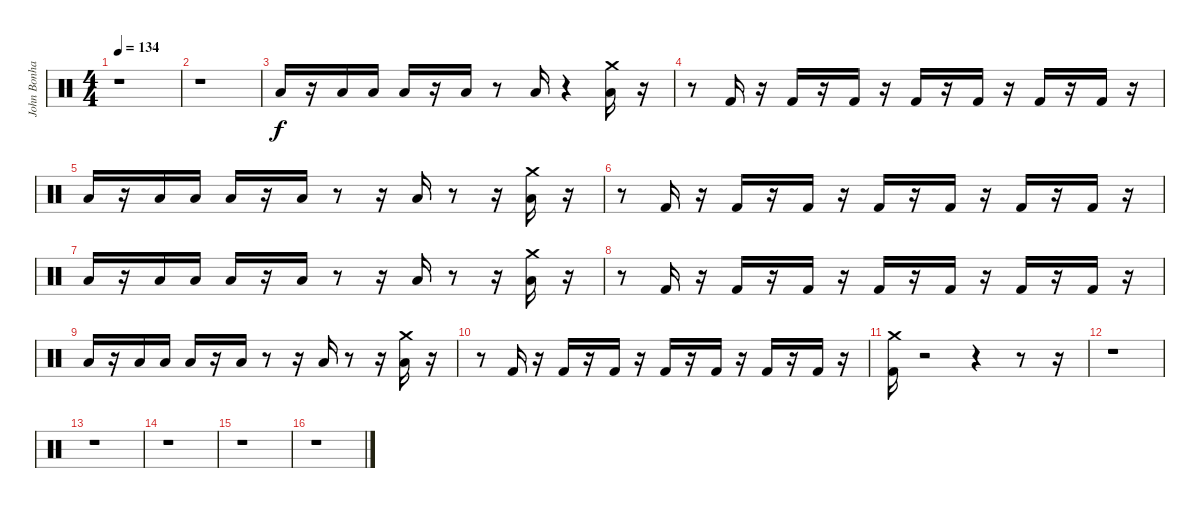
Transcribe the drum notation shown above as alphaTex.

\track ("John Bonham - Drums" "John Bonha") {instrument percussion}
\staff {score}
\articulation defaults
\ts (4 4)
\tempo 134
\clef neutral
\ks c
r.1{dy ppp} |
r.1 |
"Low Floor Tom (hit)".16{dy f} r.16 "Low Floor Tom (hit)".16 "Low Floor Tom (hit)".16 "Low Floor Tom (hit)".16 r.16 "Low Floor Tom (hit)".16 r.8 "Low Floor Tom (hit)".16 r.4 ("Low Floor Tom (hit)" "Crash medium (hit)").16 r.16 |
r.8 "Kick (hit) 2".16 r.16 "Kick (hit) 2".16 r.16 "Kick (hit) 2".16 r.16 "Kick (hit) 2".16 r.16 "Kick (hit) 2".16 r.16 "Kick (hit) 2".16 r.16 "Kick (hit) 2".16 r.16 |
"Low Floor Tom (hit)".16 r.16 "Low Floor Tom (hit)".16 "Low Floor Tom (hit)".16 "Low Floor Tom (hit)".16 r.16 "Low Floor Tom (hit)".16 r.8 r.16 "Low Floor Tom (hit)".16 r.8 r.16 ("Low Floor Tom (hit)" "Crash medium (hit)").16 r.16 |
r.8 "Kick (hit) 2".16 r.16 "Kick (hit) 2".16 r.16 "Kick (hit) 2".16 r.16 "Kick (hit) 2".16 r.16 "Kick (hit) 2".16 r.16 "Kick (hit) 2".16 r.16 "Kick (hit) 2".16 r.16 |
"Low Floor Tom (hit)".16 r.16 "Low Floor Tom (hit)".16 "Low Floor Tom (hit)".16 "Low Floor Tom (hit)".16 r.16 "Low Floor Tom (hit)".16 r.8 r.16 "Low Floor Tom (hit)".16 r.8 r.16 ("Low Floor Tom (hit)" "Crash medium (hit)").16 r.16 |
r.8 "Kick (hit) 2".16 r.16 "Kick (hit) 2".16 r.16 "Kick (hit) 2".16 r.16 "Kick (hit) 2".16 r.16 "Kick (hit) 2".16 r.16 "Kick (hit) 2".16 r.16 "Kick (hit) 2".16 r.16 |
"Low Floor Tom (hit)".16 r.16 "Low Floor Tom (hit)".16 "Low Floor Tom (hit)".16 "Low Floor Tom (hit)".16 r.16 "Low Floor Tom (hit)".16 r.8 r.16 "Low Floor Tom (hit)".16 r.8 r.16 ("Low Floor Tom (hit)" "Crash medium (hit)").16 r.16 |
r.8 "Kick (hit) 2".16 r.16 "Kick (hit) 2".16 r.16 "Kick (hit) 2".16 r.16 "Kick (hit) 2".16 r.16 "Kick (hit) 2".16 r.16 "Kick (hit) 2".16 r.16 "Kick (hit) 2".16 r.16 |
("Kick (hit) 2" "Crash medium (hit)").16 r.2 r.4 r.8 r.16 |
r.1 |
r.1 |
r.1 |
r.1 |
r.1
